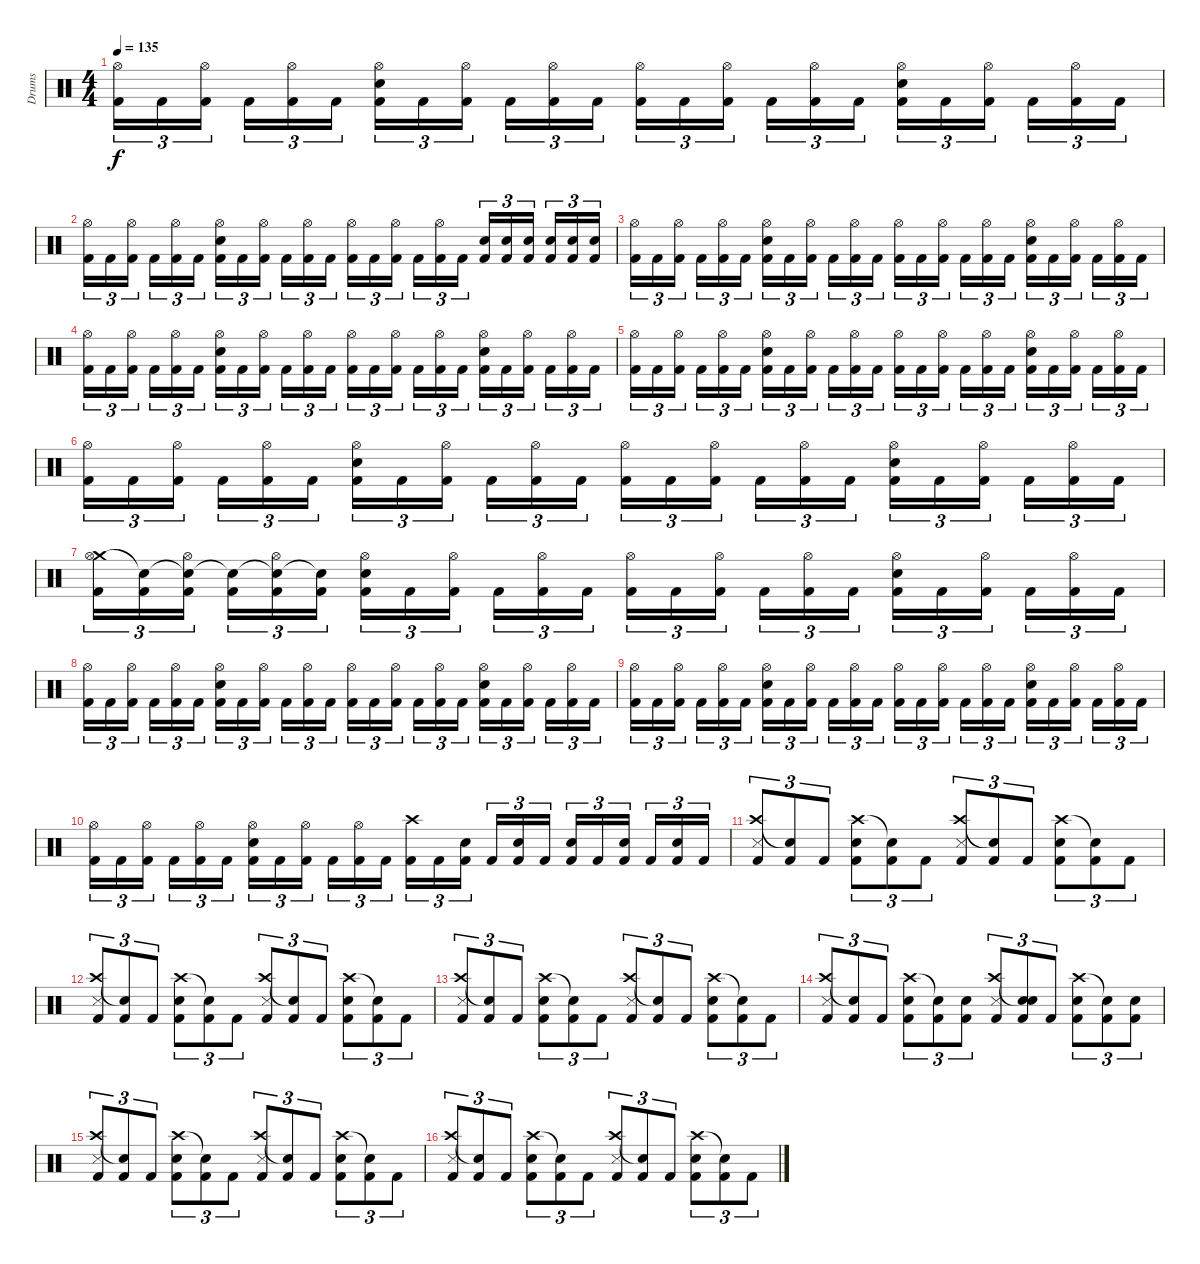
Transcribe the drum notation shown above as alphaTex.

\track ("Drums" "Drums") {instrument percussion}
\staff {score}
\articulation defaults
\ts (4 4)
\tempo 135
\clef neutral
\ks c
("Hi-Hat (open)" "Kick (hit) 2").16{tu (3 2) dy f} "Kick (hit) 2".16{tu (3 2)} ("Hi-Hat (open)" "Kick (hit) 2").16{tu (3 2)} "Kick (hit) 2".16{tu (3 2)} ("Hi-Hat (open)" "Kick (hit) 2").16{tu (3 2)} "Kick (hit) 2".16{tu (3 2)} ("Hi-Hat (open)" "Electric Snare (hit)" "Kick (hit) 2").16{tu (3 2)} "Kick (hit) 2".16{tu (3 2)} ("Hi-Hat (open)" "Kick (hit) 2").16{tu (3 2)} "Kick (hit) 2".16{tu (3 2)} ("Hi-Hat (open)" "Kick (hit) 2").16{tu (3 2)} "Kick (hit) 2".16{tu (3 2)} ("Hi-Hat (open)" "Kick (hit) 2").16{tu (3 2)} "Kick (hit) 2".16{tu (3 2)} ("Hi-Hat (open)" "Kick (hit) 2").16{tu (3 2)} "Kick (hit) 2".16{tu (3 2)} ("Hi-Hat (open)" "Kick (hit) 2").16{tu (3 2)} "Kick (hit) 2".16{tu (3 2)} ("Hi-Hat (open)" "Electric Snare (hit)" "Kick (hit) 2").16{tu (3 2)} "Kick (hit) 2".16{tu (3 2)} ("Hi-Hat (open)" "Kick (hit) 2").16{tu (3 2)} "Kick (hit) 2".16{tu (3 2)} ("Hi-Hat (open)" "Kick (hit) 2").16{tu (3 2)} "Kick (hit) 2".16{tu (3 2)} |
("Hi-Hat (open)" "Kick (hit) 2").16{tu (3 2)} "Kick (hit) 2".16{tu (3 2)} ("Hi-Hat (open)" "Kick (hit) 2").16{tu (3 2)} "Kick (hit) 2".16{tu (3 2)} ("Hi-Hat (open)" "Kick (hit) 2").16{tu (3 2)} "Kick (hit) 2".16{tu (3 2)} ("Hi-Hat (open)" "Electric Snare (hit)" "Kick (hit) 2").16{tu (3 2)} "Kick (hit) 2".16{tu (3 2)} ("Hi-Hat (open)" "Kick (hit) 2").16{tu (3 2)} "Kick (hit) 2".16{tu (3 2)} ("Hi-Hat (open)" "Kick (hit) 2").16{tu (3 2)} "Kick (hit) 2".16{tu (3 2)} ("Hi-Hat (open)" "Kick (hit) 2").16{tu (3 2)} "Kick (hit) 2".16{tu (3 2)} ("Hi-Hat (open)" "Kick (hit) 2").16{tu (3 2)} "Kick (hit) 2".16{tu (3 2)} ("Hi-Hat (open)" "Kick (hit) 2").16{tu (3 2)} "Kick (hit) 2".16{tu (3 2)} ("Electric Snare (hit)" "Kick (hit) 2").16{tu (3 2)} ("Electric Snare (hit)" "Kick (hit) 2").16{tu (3 2)} ("Electric Snare (hit)" "Kick (hit) 2").16{tu (3 2)} ("Electric Snare (hit)" "Kick (hit) 2").16{tu (3 2)} ("Electric Snare (hit)" "Kick (hit) 2").16{tu (3 2)} ("Electric Snare (hit)" "Kick (hit) 2").16{tu (3 2)} |
("Hi-Hat (open)" "Kick (hit) 2").16{tu (3 2)} "Kick (hit) 2".16{tu (3 2)} ("Hi-Hat (open)" "Kick (hit) 2").16{tu (3 2)} "Kick (hit) 2".16{tu (3 2)} ("Hi-Hat (open)" "Kick (hit) 2").16{tu (3 2)} "Kick (hit) 2".16{tu (3 2)} ("Hi-Hat (open)" "Electric Snare (hit)" "Kick (hit) 2").16{tu (3 2)} "Kick (hit) 2".16{tu (3 2)} ("Hi-Hat (open)" "Kick (hit) 2").16{tu (3 2)} "Kick (hit) 2".16{tu (3 2)} ("Hi-Hat (open)" "Kick (hit) 2").16{tu (3 2)} "Kick (hit) 2".16{tu (3 2)} ("Hi-Hat (open)" "Kick (hit) 2").16{tu (3 2)} "Kick (hit) 2".16{tu (3 2)} ("Hi-Hat (open)" "Kick (hit) 2").16{tu (3 2)} "Kick (hit) 2".16{tu (3 2)} ("Hi-Hat (open)" "Kick (hit) 2").16{tu (3 2)} "Kick (hit) 2".16{tu (3 2)} ("Hi-Hat (open)" "Electric Snare (hit)" "Kick (hit) 2").16{tu (3 2)} "Kick (hit) 2".16{tu (3 2)} ("Hi-Hat (open)" "Kick (hit) 2").16{tu (3 2)} "Kick (hit) 2".16{tu (3 2)} ("Hi-Hat (open)" "Kick (hit) 2").16{tu (3 2)} "Kick (hit) 2".16{tu (3 2)} |
("Hi-Hat (open)" "Kick (hit) 2").16{tu (3 2)} "Kick (hit) 2".16{tu (3 2)} ("Hi-Hat (open)" "Kick (hit) 2").16{tu (3 2)} "Kick (hit) 2".16{tu (3 2)} ("Hi-Hat (open)" "Kick (hit) 2").16{tu (3 2)} "Kick (hit) 2".16{tu (3 2)} ("Hi-Hat (open)" "Electric Snare (hit)" "Kick (hit) 2").16{tu (3 2)} "Kick (hit) 2".16{tu (3 2)} ("Hi-Hat (open)" "Kick (hit) 2").16{tu (3 2)} "Kick (hit) 2".16{tu (3 2)} ("Hi-Hat (open)" "Kick (hit) 2").16{tu (3 2)} "Kick (hit) 2".16{tu (3 2)} ("Hi-Hat (open)" "Kick (hit) 2").16{tu (3 2)} "Kick (hit) 2".16{tu (3 2)} ("Hi-Hat (open)" "Kick (hit) 2").16{tu (3 2)} "Kick (hit) 2".16{tu (3 2)} ("Hi-Hat (open)" "Kick (hit) 2").16{tu (3 2)} "Kick (hit) 2".16{tu (3 2)} ("Hi-Hat (open)" "Electric Snare (hit)" "Kick (hit) 2").16{tu (3 2)} "Kick (hit) 2".16{tu (3 2)} ("Hi-Hat (open)" "Kick (hit) 2").16{tu (3 2)} "Kick (hit) 2".16{tu (3 2)} ("Hi-Hat (open)" "Kick (hit) 2").16{tu (3 2)} "Kick (hit) 2".16{tu (3 2)} |
("Hi-Hat (open)" "Kick (hit) 2").16{tu (3 2)} "Kick (hit) 2".16{tu (3 2)} ("Hi-Hat (open)" "Kick (hit) 2").16{tu (3 2)} "Kick (hit) 2".16{tu (3 2)} ("Hi-Hat (open)" "Kick (hit) 2").16{tu (3 2)} "Kick (hit) 2".16{tu (3 2)} ("Hi-Hat (open)" "Electric Snare (hit)" "Kick (hit) 2").16{tu (3 2)} "Kick (hit) 2".16{tu (3 2)} ("Hi-Hat (open)" "Kick (hit) 2").16{tu (3 2)} "Kick (hit) 2".16{tu (3 2)} ("Hi-Hat (open)" "Kick (hit) 2").16{tu (3 2)} "Kick (hit) 2".16{tu (3 2)} ("Hi-Hat (open)" "Kick (hit) 2").16{tu (3 2)} "Kick (hit) 2".16{tu (3 2)} ("Hi-Hat (open)" "Kick (hit) 2").16{tu (3 2)} "Kick (hit) 2".16{tu (3 2)} ("Hi-Hat (open)" "Kick (hit) 2").16{tu (3 2)} "Kick (hit) 2".16{tu (3 2)} ("Hi-Hat (open)" "Electric Snare (hit)" "Kick (hit) 2").16{tu (3 2)} "Kick (hit) 2".16{tu (3 2)} ("Hi-Hat (open)" "Kick (hit) 2").16{tu (3 2)} "Kick (hit) 2".16{tu (3 2)} ("Hi-Hat (open)" "Kick (hit) 2").16{tu (3 2)} "Kick (hit) 2".16{tu (3 2)} |
("Hi-Hat (open)" "Kick (hit) 2").16{tu (3 2)} "Kick (hit) 2".16{tu (3 2)} ("Hi-Hat (open)" "Kick (hit) 2").16{tu (3 2)} "Kick (hit) 2".16{tu (3 2)} ("Hi-Hat (open)" "Kick (hit) 2").16{tu (3 2)} "Kick (hit) 2".16{tu (3 2)} ("Hi-Hat (open)" "Electric Snare (hit)" "Kick (hit) 2").16{tu (3 2)} "Kick (hit) 2".16{tu (3 2)} ("Hi-Hat (open)" "Kick (hit) 2").16{tu (3 2)} "Kick (hit) 2".16{tu (3 2)} ("Hi-Hat (open)" "Kick (hit) 2").16{tu (3 2)} "Kick (hit) 2".16{tu (3 2)} ("Hi-Hat (open)" "Kick (hit) 2").16{tu (3 2)} "Kick (hit) 2".16{tu (3 2)} ("Hi-Hat (open)" "Kick (hit) 2").16{tu (3 2)} "Kick (hit) 2".16{tu (3 2)} ("Hi-Hat (open)" "Kick (hit) 2").16{tu (3 2)} "Kick (hit) 2".16{tu (3 2)} ("Hi-Hat (open)" "Electric Snare (hit)" "Kick (hit) 2").16{tu (3 2)} "Kick (hit) 2".16{tu (3 2)} ("Hi-Hat (open)" "Kick (hit) 2").16{tu (3 2)} "Kick (hit) 2".16{tu (3 2)} ("Hi-Hat (open)" "Kick (hit) 2").16{tu (3 2)} "Kick (hit) 2".16{tu (3 2)} |
("Crash medium (hit)" "Hi-Hat (open)" "Kick (hit) 2").16{tu (3 2)} ("Snare (hit)"{t} "Kick (hit) 2").16{tu (3 2)} ("Snare (hit)"{t} "Hi-Hat (open)" "Kick (hit) 2").16{tu (3 2)} ("Snare (hit)"{t} "Kick (hit) 2").16{tu (3 2)} ("Snare (hit)"{t} "Hi-Hat (open)" "Kick (hit) 2").16{tu (3 2)} ("Snare (hit)"{t} "Kick (hit) 2").16{tu (3 2)} ("Hi-Hat (open)" "Electric Snare (hit)" "Kick (hit) 2").16{tu (3 2)} "Kick (hit) 2".16{tu (3 2)} ("Hi-Hat (open)" "Kick (hit) 2").16{tu (3 2)} "Kick (hit) 2".16{tu (3 2)} ("Hi-Hat (open)" "Kick (hit) 2").16{tu (3 2)} "Kick (hit) 2".16{tu (3 2)} ("Hi-Hat (open)" "Kick (hit) 2").16{tu (3 2)} "Kick (hit) 2".16{tu (3 2)} ("Hi-Hat (open)" "Kick (hit) 2").16{tu (3 2)} "Kick (hit) 2".16{tu (3 2)} ("Hi-Hat (open)" "Kick (hit) 2").16{tu (3 2)} "Kick (hit) 2".16{tu (3 2)} ("Hi-Hat (open)" "Electric Snare (hit)" "Kick (hit) 2").16{tu (3 2)} "Kick (hit) 2".16{tu (3 2)} ("Hi-Hat (open)" "Kick (hit) 2").16{tu (3 2)} "Kick (hit) 2".16{tu (3 2)} ("Hi-Hat (open)" "Kick (hit) 2").16{tu (3 2)} "Kick (hit) 2".16{tu (3 2)} |
("Hi-Hat (open)" "Kick (hit) 2").16{tu (3 2)} "Kick (hit) 2".16{tu (3 2)} ("Hi-Hat (open)" "Kick (hit) 2").16{tu (3 2)} "Kick (hit) 2".16{tu (3 2)} ("Hi-Hat (open)" "Kick (hit) 2").16{tu (3 2)} "Kick (hit) 2".16{tu (3 2)} ("Hi-Hat (open)" "Electric Snare (hit)" "Kick (hit) 2").16{tu (3 2)} "Kick (hit) 2".16{tu (3 2)} ("Hi-Hat (open)" "Kick (hit) 2").16{tu (3 2)} "Kick (hit) 2".16{tu (3 2)} ("Hi-Hat (open)" "Kick (hit) 2").16{tu (3 2)} "Kick (hit) 2".16{tu (3 2)} ("Hi-Hat (open)" "Kick (hit) 2").16{tu (3 2)} "Kick (hit) 2".16{tu (3 2)} ("Hi-Hat (open)" "Kick (hit) 2").16{tu (3 2)} "Kick (hit) 2".16{tu (3 2)} ("Hi-Hat (open)" "Kick (hit) 2").16{tu (3 2)} "Kick (hit) 2".16{tu (3 2)} ("Hi-Hat (open)" "Electric Snare (hit)" "Kick (hit) 2").16{tu (3 2)} "Kick (hit) 2".16{tu (3 2)} ("Hi-Hat (open)" "Kick (hit) 2").16{tu (3 2)} "Kick (hit) 2".16{tu (3 2)} ("Hi-Hat (open)" "Kick (hit) 2").16{tu (3 2)} "Kick (hit) 2".16{tu (3 2)} |
("Hi-Hat (open)" "Kick (hit) 2").16{tu (3 2)} "Kick (hit) 2".16{tu (3 2)} ("Hi-Hat (open)" "Kick (hit) 2").16{tu (3 2)} "Kick (hit) 2".16{tu (3 2)} ("Hi-Hat (open)" "Kick (hit) 2").16{tu (3 2)} "Kick (hit) 2".16{tu (3 2)} ("Hi-Hat (open)" "Electric Snare (hit)" "Kick (hit) 2").16{tu (3 2)} "Kick (hit) 2".16{tu (3 2)} ("Hi-Hat (open)" "Kick (hit) 2").16{tu (3 2)} "Kick (hit) 2".16{tu (3 2)} ("Hi-Hat (open)" "Kick (hit) 2").16{tu (3 2)} "Kick (hit) 2".16{tu (3 2)} ("Hi-Hat (open)" "Kick (hit) 2").16{tu (3 2)} "Kick (hit) 2".16{tu (3 2)} ("Hi-Hat (open)" "Kick (hit) 2").16{tu (3 2)} "Kick (hit) 2".16{tu (3 2)} ("Hi-Hat (open)" "Kick (hit) 2").16{tu (3 2)} "Kick (hit) 2".16{tu (3 2)} ("Hi-Hat (open)" "Electric Snare (hit)" "Kick (hit) 2").16{tu (3 2)} "Kick (hit) 2".16{tu (3 2)} ("Hi-Hat (open)" "Kick (hit) 2").16{tu (3 2)} "Kick (hit) 2".16{tu (3 2)} ("Hi-Hat (open)" "Kick (hit) 2").16{tu (3 2)} "Kick (hit) 2".16{tu (3 2)} |
("Hi-Hat (open)" "Kick (hit) 2").16{tu (3 2)} "Kick (hit) 2".16{tu (3 2)} ("Hi-Hat (open)" "Kick (hit) 2").16{tu (3 2)} "Kick (hit) 2".16{tu (3 2)} ("Hi-Hat (open)" "Kick (hit) 2").16{tu (3 2)} "Kick (hit) 2".16{tu (3 2)} ("Hi-Hat (open)" "Electric Snare (hit)" "Kick (hit) 2").16{tu (3 2)} "Kick (hit) 2".16{tu (3 2)} ("Hi-Hat (open)" "Kick (hit) 2").16{tu (3 2)} "Kick (hit) 2".16{tu (3 2)} ("Hi-Hat (open)" "Kick (hit) 2").16{tu (3 2)} "Kick (hit) 2".16{tu (3 2)} ("Crash high (hit)" "Kick (hit) 2").16{tu (3 2)} "Kick (hit) 2".16{tu (3 2)} ("Electric Snare (hit)" "Kick (hit) 2").16{tu (3 2)} "Kick (hit) 2".16{tu (3 2)} ("Electric Snare (hit)" "Kick (hit) 2").16{tu (3 2)} "Kick (hit) 2".16{tu (3 2)} ("Electric Snare (hit)" "Kick (hit) 2").16{tu (3 2)} "Kick (hit) 2".16{tu (3 2)} ("Electric Snare (hit)" "Kick (hit) 2").16{tu (3 2)} "Kick (hit) 2".16{tu (3 2)} ("Electric Snare (hit)" "Kick (hit) 2").16{tu (3 2)} "Kick (hit) 2".16{tu (3 2)} |
("Crash high (hit)" "Snare (side stick) 3" "Kick (hit) 2").8{tu (3 2)} ("Snare (hit)"{t} "Kick (hit) 2").8{tu (3 2)} "Kick (hit) 2".8{tu (3 2)} ("Crash high (hit)" "Electric Snare (hit)" "Kick (hit) 2").8{tu (3 2)} ("Snare (hit)"{t} "Kick (hit) 2").8{tu (3 2)} "Kick (hit) 2".8{tu (3 2)} ("Crash high (hit)" "Snare (side stick) 3" "Kick (hit) 2").8{tu (3 2)} ("Snare (hit)"{t} "Kick (hit) 2").8{tu (3 2)} "Kick (hit) 2".8{tu (3 2)} ("Crash high (hit)" "Electric Snare (hit)" "Kick (hit) 2").8{tu (3 2)} ("Snare (hit)"{t} "Kick (hit) 2").8{tu (3 2)} "Kick (hit) 2".8{tu (3 2)} |
("Crash high (hit)" "Snare (side stick) 3" "Kick (hit) 2").8{tu (3 2)} ("Snare (hit)"{t} "Kick (hit) 2").8{tu (3 2)} "Kick (hit) 2".8{tu (3 2)} ("Crash high (hit)" "Electric Snare (hit)" "Kick (hit) 2").8{tu (3 2)} ("Snare (hit)"{t} "Kick (hit) 2").8{tu (3 2)} "Kick (hit) 2".8{tu (3 2)} ("Crash high (hit)" "Snare (side stick) 3" "Kick (hit) 2").8{tu (3 2)} ("Snare (hit)"{t} "Kick (hit) 2").8{tu (3 2)} "Kick (hit) 2".8{tu (3 2)} ("Crash high (hit)" "Electric Snare (hit)" "Kick (hit) 2").8{tu (3 2)} ("Snare (hit)"{t} "Kick (hit) 2").8{tu (3 2)} "Kick (hit) 2".8{tu (3 2)} |
("Crash high (hit)" "Snare (side stick) 3" "Kick (hit) 2").8{tu (3 2)} ("Snare (hit)"{t} "Kick (hit) 2").8{tu (3 2)} "Kick (hit) 2".8{tu (3 2)} ("Crash high (hit)" "Electric Snare (hit)" "Kick (hit) 2").8{tu (3 2)} ("Snare (hit)"{t} "Kick (hit) 2").8{tu (3 2)} "Kick (hit) 2".8{tu (3 2)} ("Crash high (hit)" "Snare (side stick) 3" "Kick (hit) 2").8{tu (3 2)} ("Snare (hit)"{t} "Kick (hit) 2").8{tu (3 2)} "Kick (hit) 2".8{tu (3 2)} ("Crash high (hit)" "Electric Snare (hit)" "Kick (hit) 2").8{tu (3 2)} ("Snare (hit)"{t} "Kick (hit) 2").8{tu (3 2)} "Kick (hit) 2".8{tu (3 2)} |
("Crash high (hit)" "Snare (side stick) 3" "Kick (hit) 2").8{tu (3 2)} ("Snare (hit)"{t} "Kick (hit) 2").8{tu (3 2)} "Kick (hit) 2".8{tu (3 2)} ("Crash high (hit)" "Electric Snare (hit)" "Kick (hit) 2").8{tu (3 2)} ("Snare (hit)"{t} "Kick (hit) 2").8{tu (3 2)} ("Electric Snare (hit)" "Kick (hit) 2").8{tu (3 2)} ("Crash high (hit)" "Snare (side stick) 3" "Kick (hit) 2").8{tu (3 2)} ("Snare (hit)"{t} "Electric Snare (hit)" "Kick (hit) 2").8{tu (3 2)} "Kick (hit) 2".8{tu (3 2)} ("Crash high (hit)" "Electric Snare (hit)" "Kick (hit) 2").8{tu (3 2)} ("Snare (hit)"{t} "Kick (hit) 2").8{tu (3 2)} ("Electric Snare (hit)" "Kick (hit) 2").8{tu (3 2)} |
("Crash high (hit)" "Snare (side stick) 3" "Kick (hit) 2").8{tu (3 2)} ("Snare (hit)"{t} "Kick (hit) 2").8{tu (3 2)} "Kick (hit) 2".8{tu (3 2)} ("Crash high (hit)" "Electric Snare (hit)" "Kick (hit) 2").8{tu (3 2)} ("Snare (hit)"{t} "Kick (hit) 2").8{tu (3 2)} "Kick (hit) 2".8{tu (3 2)} ("Crash high (hit)" "Snare (side stick) 3" "Kick (hit) 2").8{tu (3 2)} ("Snare (hit)"{t} "Kick (hit) 2").8{tu (3 2)} "Kick (hit) 2".8{tu (3 2)} ("Crash high (hit)" "Electric Snare (hit)" "Kick (hit) 2").8{tu (3 2)} ("Snare (hit)"{t} "Kick (hit) 2").8{tu (3 2)} "Kick (hit) 2".8{tu (3 2)} |
("Crash high (hit)" "Snare (side stick) 3" "Kick (hit) 2").8{tu (3 2)} ("Snare (hit)"{t} "Kick (hit) 2").8{tu (3 2)} "Kick (hit) 2".8{tu (3 2)} ("Crash high (hit)" "Electric Snare (hit)" "Kick (hit) 2").8{tu (3 2)} ("Snare (hit)"{t} "Kick (hit) 2").8{tu (3 2)} "Kick (hit) 2".8{tu (3 2)} ("Crash high (hit)" "Snare (side stick) 3" "Kick (hit) 2").8{tu (3 2)} ("Snare (hit)"{t} "Kick (hit) 2").8{tu (3 2)} "Kick (hit) 2".8{tu (3 2)} ("Crash high (hit)" "Electric Snare (hit)" "Kick (hit) 2").8{tu (3 2)} ("Snare (hit)"{t} "Kick (hit) 2").8{tu (3 2)} "Kick (hit) 2".8{tu (3 2)}
